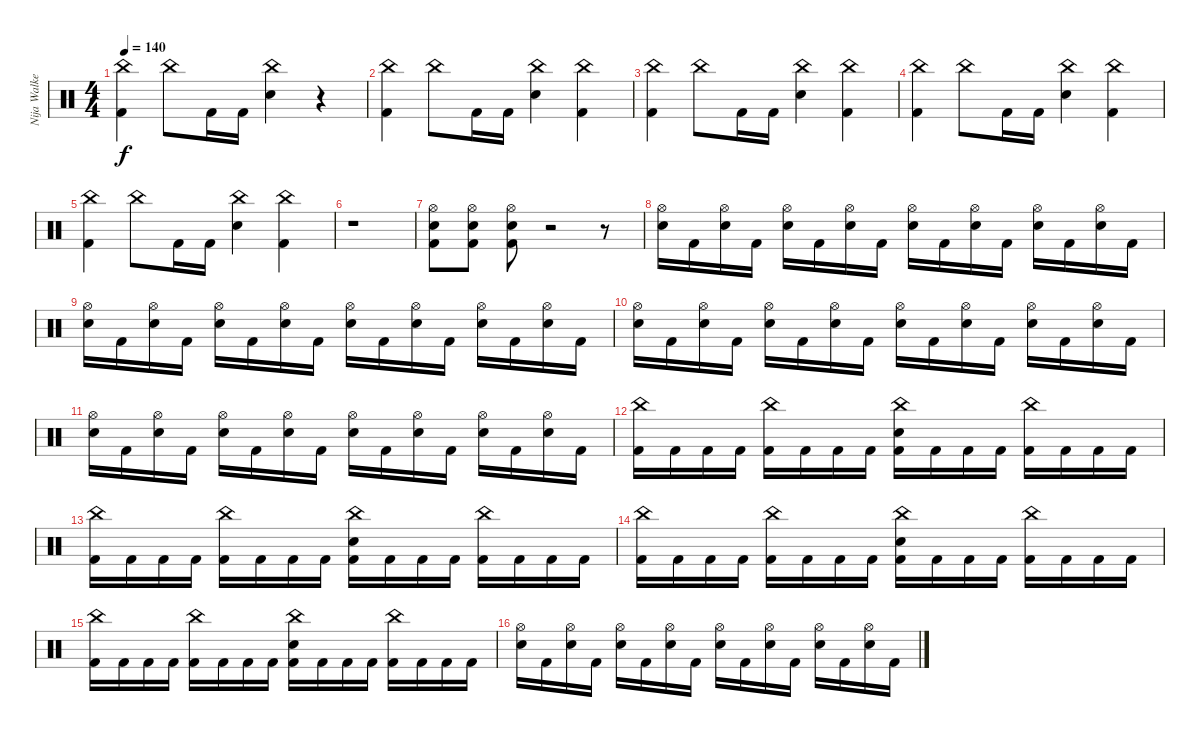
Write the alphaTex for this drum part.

\track ("Nija Walker" "Nija Walke") {instrument percussion bank 151}
\staff {score}
\articulation defaults
\ts (4 4)
\tempo 140
\clef neutral
\ks c
("China (hit)" "Kick (hit) 2").4{dy f} "China (hit)".8 "Kick (hit) 2".16 "Kick (hit) 2".16 ("China (hit)" "Electric Snare (hit)").4 r.4 |
("China (hit)" "Kick (hit) 2").4 "China (hit)".8 "Kick (hit) 2".16 "Kick (hit) 2".16 ("China (hit)" "Electric Snare (hit)").4 ("China (hit)" "Kick (hit) 2").4 |
("China (hit)" "Kick (hit) 2").4 "China (hit)".8 "Kick (hit) 2".16 "Kick (hit) 2".16 ("China (hit)" "Electric Snare (hit)").4 ("China (hit)" "Kick (hit) 2").4 |
("China (hit)" "Kick (hit) 2").4 "China (hit)".8 "Kick (hit) 2".16 "Kick (hit) 2".16 ("China (hit)" "Electric Snare (hit)").4 ("China (hit)" "Kick (hit) 2").4 |
("China (hit)" "Kick (hit) 2").4 "China (hit)".8 "Kick (hit) 2".16 "Kick (hit) 2".16 ("China (hit)" "Electric Snare (hit)").4 ("China (hit)" "Kick (hit) 2").4 |
r.1 |
("Hi-Hat (open)" "Electric Snare (hit)" "Kick (hit) 2").8 ("Hi-Hat (open)" "Electric Snare (hit)" "Kick (hit) 2").8 ("Hi-Hat (open)" "Electric Snare (hit)" "Kick (hit) 2").8 r.2 r.8 |
("Hi-Hat (open)" "Electric Snare (hit)").16 "Kick (hit) 2".16 ("Hi-Hat (open)" "Electric Snare (hit)").16 "Kick (hit) 2".16 ("Hi-Hat (open)" "Electric Snare (hit)").16 "Kick (hit) 2".16 ("Hi-Hat (open)" "Electric Snare (hit)").16 "Kick (hit) 2".16 ("Hi-Hat (open)" "Electric Snare (hit)").16 "Kick (hit) 2".16 ("Hi-Hat (open)" "Electric Snare (hit)").16 "Kick (hit) 2".16 ("Hi-Hat (open)" "Electric Snare (hit)").16 "Kick (hit) 2".16 ("Hi-Hat (open)" "Electric Snare (hit)").16 "Kick (hit) 2".16 |
("Hi-Hat (open)" "Electric Snare (hit)").16 "Kick (hit) 2".16 ("Hi-Hat (open)" "Electric Snare (hit)").16 "Kick (hit) 2".16 ("Hi-Hat (open)" "Electric Snare (hit)").16 "Kick (hit) 2".16 ("Hi-Hat (open)" "Electric Snare (hit)").16 "Kick (hit) 2".16 ("Hi-Hat (open)" "Electric Snare (hit)").16 "Kick (hit) 2".16 ("Hi-Hat (open)" "Electric Snare (hit)").16 "Kick (hit) 2".16 ("Hi-Hat (open)" "Electric Snare (hit)").16 "Kick (hit) 2".16 ("Hi-Hat (open)" "Electric Snare (hit)").16 "Kick (hit) 2".16 |
("Hi-Hat (open)" "Electric Snare (hit)").16 "Kick (hit) 2".16 ("Hi-Hat (open)" "Electric Snare (hit)").16 "Kick (hit) 2".16 ("Hi-Hat (open)" "Electric Snare (hit)").16 "Kick (hit) 2".16 ("Hi-Hat (open)" "Electric Snare (hit)").16 "Kick (hit) 2".16 ("Hi-Hat (open)" "Electric Snare (hit)").16 "Kick (hit) 2".16 ("Hi-Hat (open)" "Electric Snare (hit)").16 "Kick (hit) 2".16 ("Hi-Hat (open)" "Electric Snare (hit)").16 "Kick (hit) 2".16 ("Hi-Hat (open)" "Electric Snare (hit)").16 "Kick (hit) 2".16 |
("Hi-Hat (open)" "Electric Snare (hit)").16 "Kick (hit) 2".16 ("Hi-Hat (open)" "Electric Snare (hit)").16 "Kick (hit) 2".16 ("Hi-Hat (open)" "Electric Snare (hit)").16 "Kick (hit) 2".16 ("Hi-Hat (open)" "Electric Snare (hit)").16 "Kick (hit) 2".16 ("Hi-Hat (open)" "Electric Snare (hit)").16 "Kick (hit) 2".16 ("Hi-Hat (open)" "Electric Snare (hit)").16 "Kick (hit) 2".16 ("Hi-Hat (open)" "Electric Snare (hit)").16 "Kick (hit) 2".16 ("Hi-Hat (open)" "Electric Snare (hit)").16 "Kick (hit) 2".16 |
("China (hit)" "Kick (hit) 2").16 "Kick (hit) 2".16 "Kick (hit) 2".16 "Kick (hit) 2".16 ("China (hit)" "Kick (hit) 2").16 "Kick (hit) 2".16 "Kick (hit) 2".16 "Kick (hit) 2".16 ("China (hit)" "Electric Snare (hit)" "Kick (hit) 2").16 "Kick (hit) 2".16 "Kick (hit) 2".16 "Kick (hit) 2".16 ("China (hit)" "Kick (hit) 2").16 "Kick (hit) 2".16 "Kick (hit) 2".16 "Kick (hit) 2".16 |
("China (hit)" "Kick (hit) 2").16 "Kick (hit) 2".16 "Kick (hit) 2".16 "Kick (hit) 2".16 ("China (hit)" "Kick (hit) 2").16 "Kick (hit) 2".16 "Kick (hit) 2".16 "Kick (hit) 2".16 ("China (hit)" "Electric Snare (hit)" "Kick (hit) 2").16 "Kick (hit) 2".16 "Kick (hit) 2".16 "Kick (hit) 2".16 ("China (hit)" "Kick (hit) 2").16 "Kick (hit) 2".16 "Kick (hit) 2".16 "Kick (hit) 2".16 |
("China (hit)" "Kick (hit) 2").16 "Kick (hit) 2".16 "Kick (hit) 2".16 "Kick (hit) 2".16 ("China (hit)" "Kick (hit) 2").16 "Kick (hit) 2".16 "Kick (hit) 2".16 "Kick (hit) 2".16 ("China (hit)" "Electric Snare (hit)" "Kick (hit) 2").16 "Kick (hit) 2".16 "Kick (hit) 2".16 "Kick (hit) 2".16 ("China (hit)" "Kick (hit) 2").16 "Kick (hit) 2".16 "Kick (hit) 2".16 "Kick (hit) 2".16 |
("China (hit)" "Kick (hit) 2").16 "Kick (hit) 2".16 "Kick (hit) 2".16 "Kick (hit) 2".16 ("China (hit)" "Kick (hit) 2").16 "Kick (hit) 2".16 "Kick (hit) 2".16 "Kick (hit) 2".16 ("China (hit)" "Electric Snare (hit)" "Kick (hit) 2").16 "Kick (hit) 2".16 "Kick (hit) 2".16 "Kick (hit) 2".16 ("China (hit)" "Kick (hit) 2").16 "Kick (hit) 2".16 "Kick (hit) 2".16 "Kick (hit) 2".16 |
("Hi-Hat (open)" "Electric Snare (hit)").16 "Kick (hit) 2".16 ("Hi-Hat (open)" "Electric Snare (hit)").16 "Kick (hit) 2".16 ("Hi-Hat (open)" "Electric Snare (hit)").16 "Kick (hit) 2".16 ("Hi-Hat (open)" "Electric Snare (hit)").16 "Kick (hit) 2".16 ("Hi-Hat (open)" "Electric Snare (hit)").16 "Kick (hit) 2".16 ("Hi-Hat (open)" "Electric Snare (hit)").16 "Kick (hit) 2".16 ("Hi-Hat (open)" "Electric Snare (hit)").16 "Kick (hit) 2".16 ("Hi-Hat (open)" "Electric Snare (hit)").16 "Kick (hit) 2".16
